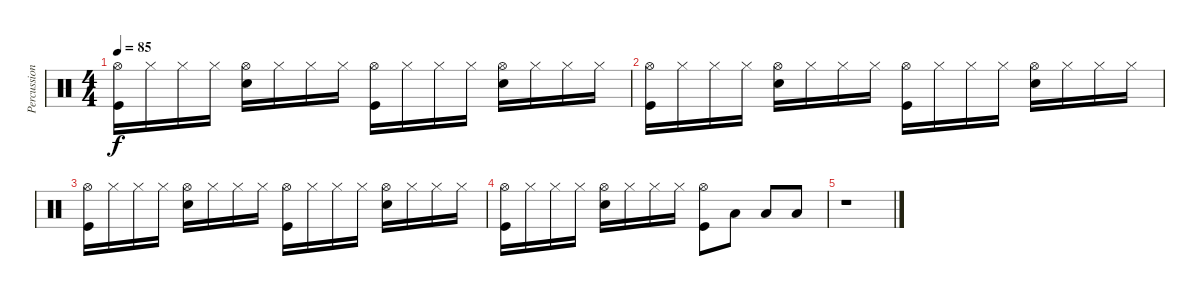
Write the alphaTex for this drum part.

\track ("Percussions" "Percussion") {instrument percussion}
\staff {score}
\articulation defaults
\ts (4 4)
\tempo 85
\clef neutral
\ks c
("Hi-Hat (open)" "Kick (hit)").16{dy f} "Hi-Hat (closed)".16 "Hi-Hat (closed)".16 "Hi-Hat (closed)".16 ("Hi-Hat (open)" "Snare (hit) 2").16 "Hi-Hat (closed)".16 "Hi-Hat (closed)".16 "Hi-Hat (closed)".16 ("Hi-Hat (open)" "Kick (hit)").16 "Hi-Hat (closed)".16 "Hi-Hat (closed)".16 "Hi-Hat (closed)".16 ("Hi-Hat (open)" "Snare (hit) 2").16 "Hi-Hat (closed)".16 "Hi-Hat (closed)".16 "Hi-Hat (closed)".16 |
("Hi-Hat (open)" "Kick (hit)").16 "Hi-Hat (closed)".16 "Hi-Hat (closed)".16 "Hi-Hat (closed)".16 ("Hi-Hat (open)" "Snare (hit) 2").16 "Hi-Hat (closed)".16 "Hi-Hat (closed)".16 "Hi-Hat (closed)".16 ("Hi-Hat (open)" "Kick (hit)").16 "Hi-Hat (closed)".16 "Hi-Hat (closed)".16 "Hi-Hat (closed)".16 ("Hi-Hat (open)" "Snare (hit) 2").16 "Hi-Hat (closed)".16 "Hi-Hat (closed)".16 "Hi-Hat (closed)".16 |
("Hi-Hat (open)" "Kick (hit)").16 "Hi-Hat (closed)".16 "Hi-Hat (closed)".16 "Hi-Hat (closed)".16 ("Hi-Hat (open)" "Snare (hit) 2").16 "Hi-Hat (closed)".16 "Hi-Hat (closed)".16 "Hi-Hat (closed)".16 ("Hi-Hat (open)" "Kick (hit)").16 "Hi-Hat (closed)".16 "Hi-Hat (closed)".16 "Hi-Hat (closed)".16 ("Hi-Hat (open)" "Snare (hit) 2").16 "Hi-Hat (closed)".16 "Hi-Hat (closed)".16 "Hi-Hat (closed)".16 |
("Hi-Hat (open)" "Kick (hit)").16 "Hi-Hat (closed)".16 "Hi-Hat (closed)".16 "Hi-Hat (closed)".16 ("Hi-Hat (open)" "Snare (hit) 2").16 "Hi-Hat (closed)".16 "Hi-Hat (closed)".16 "Hi-Hat (closed)".16 ("Hi-Hat (open)" "Kick (hit)").8 "Low Tom (hit)".8 "Low Tom (hit)".8 "Low Tom (hit)".8 |
r.1
